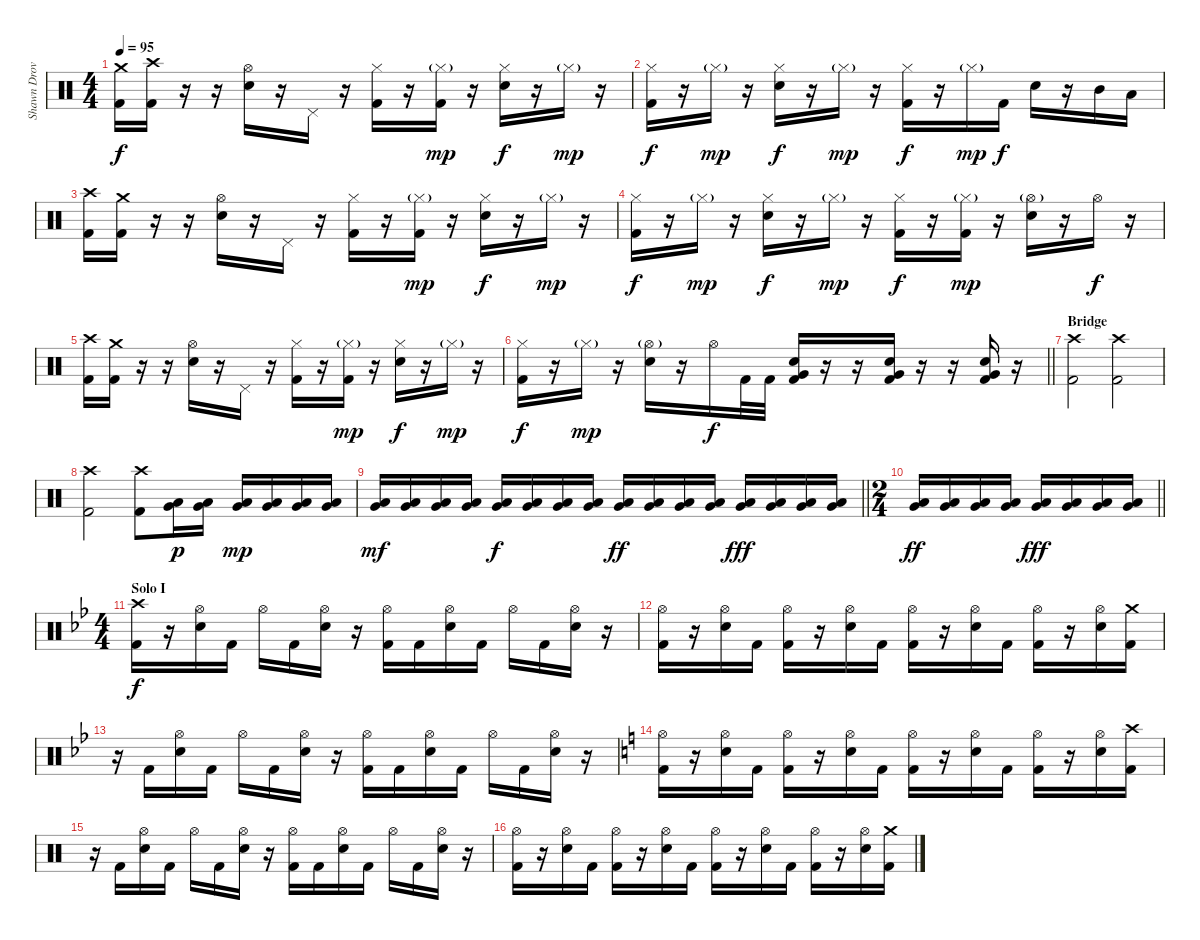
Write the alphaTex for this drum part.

\track ("Shawn Drover" "Shawn Drov") {instrument percussion}
\staff {score}
\articulation defaults
\ts (4 4)
\tempo 95
\clef neutral
\ks c
("Crash medium (hit)" "Kick (hit) 2").16{dy f} ("Crash high (hit)" "Kick (hit) 2").16 r.16 r.16 ("Hi-Hat (open)" "Snare (hit) 2").16 r.16 "Pedal Hi-Hat (hit)".16 r.16 ("Hi-Hat (closed)" "Kick (hit) 2").16 r.16 ("Hi-Hat (closed)"{g} "Kick (hit) 2").16{dy mp} r.16 ("Hi-Hat (closed)" "Snare (hit) 2").16{dy f} r.16 "Hi-Hat (closed)"{g}.16{dy mp} r.16 |
("Hi-Hat (closed)" "Kick (hit) 2").16{dy f} r.16 "Hi-Hat (closed)"{g}.16{dy mp} r.16 ("Hi-Hat (closed)" "Snare (hit) 2").16{dy f} r.16 "Hi-Hat (closed)"{g}.16{dy mp} r.16 ("Hi-Hat (closed)" "Kick (hit) 2").16{dy f} r.16 "Hi-Hat (closed)"{g}.16{dy mp} "Kick (hit) 2".16{dy f} "Snare (hit) 2".16 r.16 "Mid Tom (hit)".16 "Low Tom (hit)".16 |
("Crash high (hit)" "Kick (hit) 2").16 ("Crash medium (hit)" "Kick (hit) 2").16 r.16 r.16 ("Hi-Hat (open)" "Snare (hit) 2").16 r.16 "Pedal Hi-Hat (hit)".16 r.16 ("Hi-Hat (closed)" "Kick (hit) 2").16 r.16 ("Hi-Hat (closed)"{g} "Kick (hit) 2").16{dy mp} r.16 ("Hi-Hat (closed)" "Snare (hit) 2").16{dy f} r.16 "Hi-Hat (closed)"{g}.16{dy mp} r.16 |
("Hi-Hat (closed)" "Kick (hit) 2").16{dy f} r.16 "Hi-Hat (closed)"{g}.16{dy mp} r.16 ("Hi-Hat (closed)" "Snare (hit) 2").16{dy f} r.16 "Hi-Hat (closed)"{g}.16{dy mp} r.16 ("Hi-Hat (closed)" "Kick (hit) 2").16{dy f} r.16 ("Hi-Hat (closed)"{g} "Kick (hit) 2").16{dy mp} r.16 ("Hi-Hat (open)"{g} "Snare (hit) 2").16 r.16 "Hi-Hat (open)".16{dy f} r.16 |
("Crash high (hit)" "Kick (hit) 2").16 ("Crash medium (hit)" "Kick (hit) 2").16 r.16 r.16 ("Hi-Hat (open)" "Snare (hit) 2").16 r.16 "Pedal Hi-Hat (hit)".16 r.16 ("Hi-Hat (closed)" "Kick (hit) 2").16 r.16 ("Hi-Hat (closed)"{g} "Kick (hit) 2").16{dy mp} r.16 ("Hi-Hat (closed)" "Snare (hit) 2").16{dy f} r.16 "Hi-Hat (closed)"{g}.16{dy mp} r.16 |
\barLineRight lightlight
("Hi-Hat (closed)" "Kick (hit) 2").16{dy f} r.16 "Hi-Hat (closed)"{g}.16{dy mp} r.16 ("Hi-Hat (open)"{g} "Snare (hit) 2").16 r.16 "Hi-Hat (open)".16{dy f} "Kick (hit) 2".32 "Kick (hit) 2".32 ("Very Low Tom (hit)" "Snare (hit) 2" "Kick (hit) 2").16 r.16 r.16 ("Very Low Tom (hit)" "Snare (hit) 2" "Kick (hit) 2").16 r.16 r.16 ("Very Low Tom (hit)" "Snare (hit) 2" "Kick (hit) 2").16 r.16 |
\section ("" "Bridge")
("Crash high (hit)" "Kick (hit) 2").2 ("Crash high (hit)" "Kick (hit) 2").2 |
("Crash high (hit)" "Kick (hit) 2").2 ("Crash high (hit)" "Kick (hit) 2").8 ("Very Low Tom (hit)" "Low Floor Tom (hit)").16{dy p} ("Very Low Tom (hit)" "Low Floor Tom (hit)").16 ("Very Low Tom (hit)" "Low Floor Tom (hit)").16{dy mp} ("Very Low Tom (hit)" "Low Floor Tom (hit)").16 ("Very Low Tom (hit)" "Low Floor Tom (hit)").16 ("Very Low Tom (hit)" "Low Floor Tom (hit)").16 |
\barLineRight lightlight
("Very Low Tom (hit)" "Low Floor Tom (hit)").16{dy mf} ("Very Low Tom (hit)" "Low Floor Tom (hit)").16 ("Very Low Tom (hit)" "Low Floor Tom (hit)").16 ("Very Low Tom (hit)" "Low Floor Tom (hit)").16 ("Very Low Tom (hit)" "Low Floor Tom (hit)").16{dy f} ("Very Low Tom (hit)" "Low Floor Tom (hit)").16 ("Very Low Tom (hit)" "Low Floor Tom (hit)").16 ("Very Low Tom (hit)" "Low Floor Tom (hit)").16 ("Very Low Tom (hit)" "Low Floor Tom (hit)").16{dy ff} ("Very Low Tom (hit)" "Low Floor Tom (hit)").16 ("Very Low Tom (hit)" "Low Floor Tom (hit)").16 ("Very Low Tom (hit)" "Low Floor Tom (hit)").16 ("Very Low Tom (hit)" "Low Floor Tom (hit)").16{dy fff} ("Very Low Tom (hit)" "Low Floor Tom (hit)").16 ("Very Low Tom (hit)" "Low Floor Tom (hit)").16 ("Very Low Tom (hit)" "Low Floor Tom (hit)").16 |
\ts (2 4)
\barLineRight lightlight
("Very Low Tom (hit)" "Low Floor Tom (hit)").16{dy ff} ("Very Low Tom (hit)" "Low Floor Tom (hit)").16 ("Very Low Tom (hit)" "Low Floor Tom (hit)").16 ("Very Low Tom (hit)" "Low Floor Tom (hit)").16 ("Very Low Tom (hit)" "Low Floor Tom (hit)").16{dy fff} ("Very Low Tom (hit)" "Low Floor Tom (hit)").16 ("Very Low Tom (hit)" "Low Floor Tom (hit)").16 ("Very Low Tom (hit)" "Low Floor Tom (hit)").16 |
\ts (4 4)
\section ("" "Solo I")
\ks bb
("Crash high (hit)" "Kick (hit) 2").16{dy f} r.16 ("Hi-Hat (open)" "Snare (hit) 2").16 "Kick (hit) 2".16 "Hi-Hat (open)".16 "Kick (hit) 2".16 ("Hi-Hat (open)" "Snare (hit) 2").16 r.16 ("Hi-Hat (open)" "Kick (hit) 2").16 "Kick (hit) 2".16 ("Hi-Hat (open)" "Snare (hit) 2").16 "Kick (hit) 2".16 "Hi-Hat (open)".16 "Kick (hit) 2".16 ("Hi-Hat (open)" "Snare (hit) 2").16 r.16 |
("Hi-Hat (open)" "Kick (hit) 2").16 r.16 ("Hi-Hat (open)" "Snare (hit) 2").16 "Kick (hit) 2".16 ("Hi-Hat (open)" "Kick (hit) 2").16 r.16 ("Hi-Hat (open)" "Snare (hit) 2").16 "Kick (hit) 2".16 ("Hi-Hat (open)" "Kick (hit) 2").16 r.16 ("Hi-Hat (open)" "Snare (hit) 2").16 "Kick (hit) 2".16 ("Hi-Hat (open)" "Kick (hit) 2").16 r.16 ("Hi-Hat (open)" "Snare (hit) 2").16 ("Crash medium (hit)" "Kick (hit) 2").16 |
r.16 "Kick (hit) 2".16 ("Hi-Hat (open)" "Snare (hit) 2").16 "Kick (hit) 2".16 "Hi-Hat (open)".16 "Kick (hit) 2".16 ("Hi-Hat (open)" "Snare (hit) 2").16 r.16 ("Hi-Hat (open)" "Kick (hit) 2").16 "Kick (hit) 2".16 ("Hi-Hat (open)" "Snare (hit) 2").16 "Kick (hit) 2".16 "Hi-Hat (open)".16 "Kick (hit) 2".16 ("Hi-Hat (open)" "Snare (hit) 2").16 r.16 |
\ks c
("Hi-Hat (open)" "Kick (hit) 2").16 r.16 ("Hi-Hat (open)" "Snare (hit) 2").16 "Kick (hit) 2".16 ("Hi-Hat (open)" "Kick (hit) 2").16 r.16 ("Hi-Hat (open)" "Snare (hit) 2").16 "Kick (hit) 2".16 ("Hi-Hat (open)" "Kick (hit) 2").16 r.16 ("Hi-Hat (open)" "Snare (hit) 2").16 "Kick (hit) 2".16 ("Hi-Hat (open)" "Kick (hit) 2").16 r.16 ("Hi-Hat (open)" "Snare (hit) 2").16 ("Crash high (hit)" "Kick (hit) 2").16 |
r.16 "Kick (hit) 2".16 ("Hi-Hat (open)" "Snare (hit) 2").16 "Kick (hit) 2".16 "Hi-Hat (open)".16 "Kick (hit) 2".16 ("Hi-Hat (open)" "Snare (hit) 2").16 r.16 ("Hi-Hat (open)" "Kick (hit) 2").16 "Kick (hit) 2".16 ("Hi-Hat (open)" "Snare (hit) 2").16 "Kick (hit) 2".16 "Hi-Hat (open)".16 "Kick (hit) 2".16 ("Hi-Hat (open)" "Snare (hit) 2").16 r.16 |
("Hi-Hat (open)" "Kick (hit) 2").16 r.16 ("Hi-Hat (open)" "Snare (hit) 2").16 "Kick (hit) 2".16 ("Hi-Hat (open)" "Kick (hit) 2").16 r.16 ("Hi-Hat (open)" "Snare (hit) 2").16 "Kick (hit) 2".16 ("Hi-Hat (open)" "Kick (hit) 2").16 r.16 ("Hi-Hat (open)" "Snare (hit) 2").16 "Kick (hit) 2".16 ("Hi-Hat (open)" "Kick (hit) 2").16 r.16 ("Hi-Hat (open)" "Snare (hit) 2").16 ("Crash medium (hit)" "Kick (hit) 2").16
